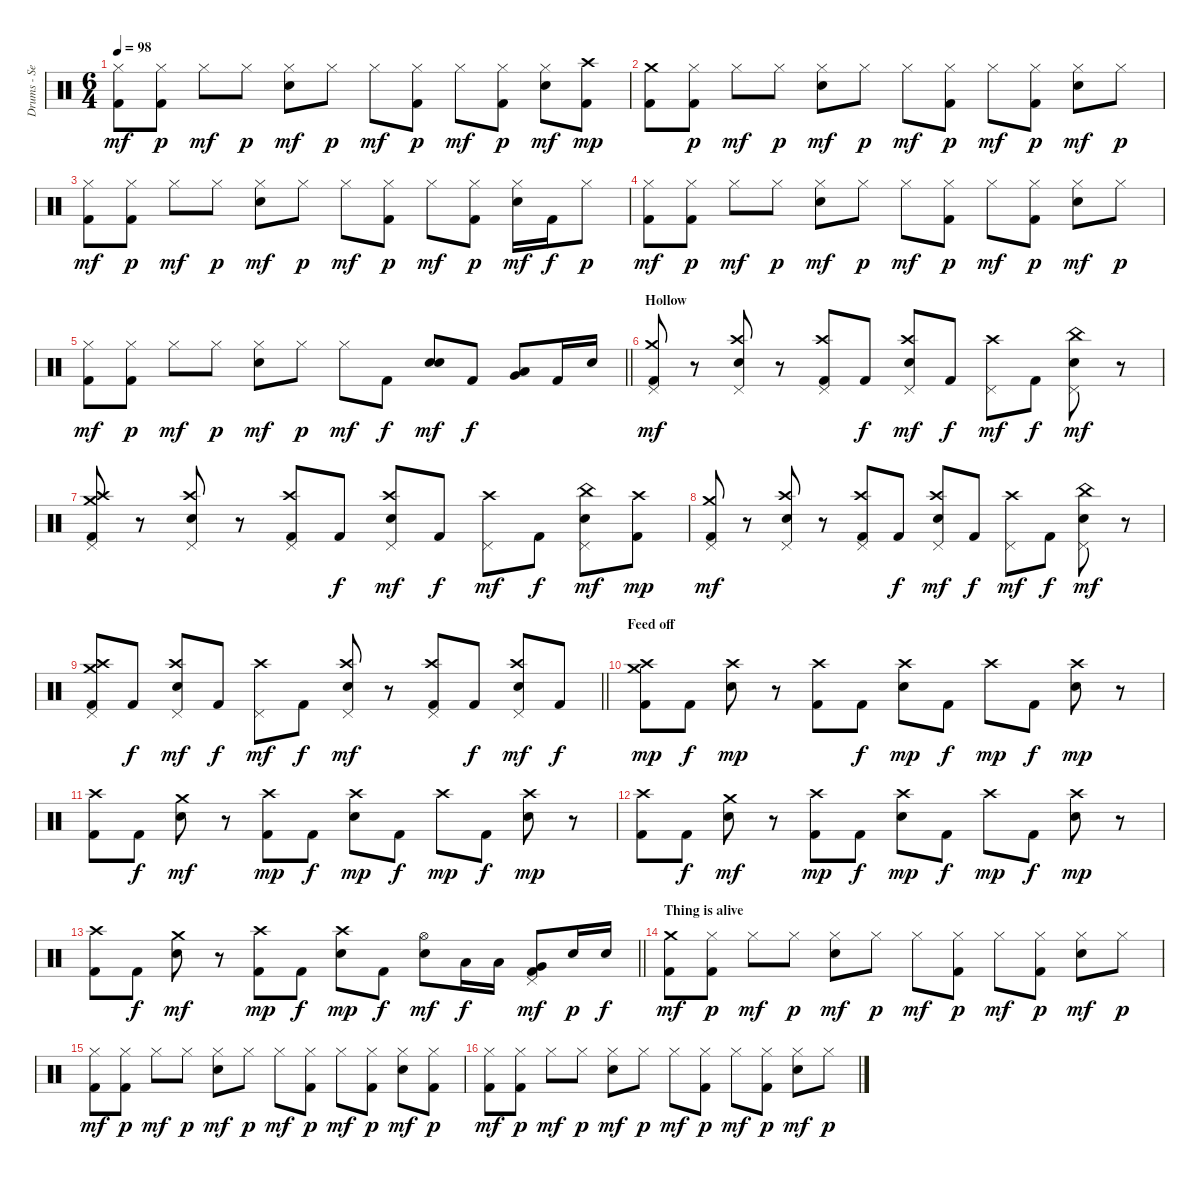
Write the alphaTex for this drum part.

\track ("Drums - Sean Kinney" "Drums - Se") {instrument percussion}
\staff {score}
\articulation defaults
\ts (6 4)
\tempo 98
\clef neutral
\ks c
("Hi-Hat (closed)" "Kick (hit) 2").8{dy mf} ("Hi-Hat (closed)" "Kick (hit) 2").8{dy p} "Hi-Hat (closed)".8{dy mf} "Hi-Hat (closed)".8{dy p} ("Hi-Hat (closed)" "Snare (hit) 2").8{dy mf} "Hi-Hat (closed)".8{dy p} "Hi-Hat (closed)".8{dy mf} ("Hi-Hat (closed)" "Kick (hit) 2").8{dy p} "Hi-Hat (closed)".8{dy mf} ("Hi-Hat (closed)" "Kick (hit) 2").8{dy p} ("Hi-Hat (closed)" "Snare (hit) 2").8{dy mf} ("Crash high (hit)" "Kick (hit) 2").8{dy mp} |
("Crash medium (hit)" "Kick (hit) 2").8 ("Hi-Hat (closed)" "Kick (hit) 2").8{dy p} "Hi-Hat (closed)".8{dy mf} "Hi-Hat (closed)".8{dy p} ("Hi-Hat (closed)" "Snare (hit) 2").8{dy mf} "Hi-Hat (closed)".8{dy p} "Hi-Hat (closed)".8{dy mf} ("Hi-Hat (closed)" "Kick (hit) 2").8{dy p} "Hi-Hat (closed)".8{dy mf} ("Hi-Hat (closed)" "Kick (hit) 2").8{dy p} ("Hi-Hat (closed)" "Snare (hit) 2").8{dy mf} "Hi-Hat (closed)".8{dy p} |
("Hi-Hat (closed)" "Kick (hit) 2").8{dy mf} ("Hi-Hat (closed)" "Kick (hit) 2").8{dy p} "Hi-Hat (closed)".8{dy mf} "Hi-Hat (closed)".8{dy p} ("Hi-Hat (closed)" "Snare (hit) 2").8{dy mf} "Hi-Hat (closed)".8{dy p} "Hi-Hat (closed)".8{dy mf} ("Hi-Hat (closed)" "Kick (hit) 2").8{dy p} "Hi-Hat (closed)".8{dy mf} ("Hi-Hat (closed)" "Kick (hit) 2").8{dy p} ("Hi-Hat (closed)" "Snare (hit) 2").16{dy mf} "Kick (hit) 2".16{dy f} "Hi-Hat (closed)".8{dy p} |
("Hi-Hat (closed)" "Kick (hit) 2").8{dy mf} ("Hi-Hat (closed)" "Kick (hit) 2").8{dy p} "Hi-Hat (closed)".8{dy mf} "Hi-Hat (closed)".8{dy p} ("Hi-Hat (closed)" "Snare (hit) 2").8{dy mf} "Hi-Hat (closed)".8{dy p} "Hi-Hat (closed)".8{dy mf} ("Hi-Hat (closed)" "Kick (hit) 2").8{dy p} "Hi-Hat (closed)".8{dy mf} ("Hi-Hat (closed)" "Kick (hit) 2").8{dy p} ("Hi-Hat (closed)" "Snare (hit) 2").8{dy mf} "Hi-Hat (closed)".8{dy p} |
\barLineRight lightlight
("Hi-Hat (closed)" "Kick (hit) 2").8{dy mf} ("Hi-Hat (closed)" "Kick (hit) 2").8{dy p} "Hi-Hat (closed)".8{dy mf} "Hi-Hat (closed)".8{dy p} ("Hi-Hat (closed)" "Snare (hit) 2").8{dy mf} "Hi-Hat (closed)".8{dy p} "Hi-Hat (closed)".8{dy mf} "Kick (hit) 2".8{dy f} ("Electric Snare (hit)" "Snare (hit) 2").8{dy mf} "Kick (hit) 2".8{dy f} ("Low Tom (hit)" "Very Low Tom (hit)").8 "Kick (hit) 2".16 "Snare (hit) 2".16 |
\section ("" "Hollow")
("Crash medium (hit)" "Pedal Hi-Hat (hit)" "Kick (hit) 2").8{dy mf} r.8 ("Crash high (hit)" "Pedal Hi-Hat (hit)" "Snare (hit) 2").8 r.8 ("Crash high (hit)" "Pedal Hi-Hat (hit)" "Kick (hit) 2").8 "Kick (hit) 2".8{dy f} ("Crash high (hit)" "Pedal Hi-Hat (hit)" "Snare (hit) 2").8{dy mf} "Kick (hit) 2".8{dy f} ("Crash high (hit)" "Pedal Hi-Hat (hit)").8{dy mf} "Kick (hit) 2".8{dy f} ("China (hit)" "Pedal Hi-Hat (hit)" "Snare (hit) 2").8{dy mf} r.8 |
("Crash medium (hit)" "Crash high (hit)" "Pedal Hi-Hat (hit)" "Kick (hit) 2").8 r.8 ("Crash high (hit)" "Pedal Hi-Hat (hit)" "Snare (hit) 2").8 r.8 ("Crash high (hit)" "Pedal Hi-Hat (hit)" "Kick (hit) 2").8 "Kick (hit) 2".8{dy f} ("Crash high (hit)" "Pedal Hi-Hat (hit)" "Snare (hit) 2").8{dy mf} "Kick (hit) 2".8{dy f} ("Crash high (hit)" "Pedal Hi-Hat (hit)").8{dy mf} "Kick (hit) 2".8{dy f} ("China (hit)" "Pedal Hi-Hat (hit)" "Snare (hit) 2").8{dy mf} ("Crash high (hit)" "Kick (hit) 2").8{dy mp} |
("Crash medium (hit)" "Pedal Hi-Hat (hit)" "Kick (hit) 2").8{dy mf} r.8 ("Crash high (hit)" "Pedal Hi-Hat (hit)" "Snare (hit) 2").8 r.8 ("Crash high (hit)" "Pedal Hi-Hat (hit)" "Kick (hit) 2").8 "Kick (hit) 2".8{dy f} ("Crash high (hit)" "Pedal Hi-Hat (hit)" "Snare (hit) 2").8{dy mf} "Kick (hit) 2".8{dy f} ("Crash high (hit)" "Pedal Hi-Hat (hit)").8{dy mf} "Kick (hit) 2".8{dy f} ("China (hit)" "Pedal Hi-Hat (hit)" "Snare (hit) 2").8{dy mf} r.8 |
\barLineRight lightlight
("Crash medium (hit)" "Crash high (hit)" "Pedal Hi-Hat (hit)" "Kick (hit) 2").8 "Kick (hit) 2".8{dy f} ("Crash high (hit)" "Pedal Hi-Hat (hit)" "Snare (hit) 2").8{dy mf} "Kick (hit) 2".8{dy f} ("Crash high (hit)" "Pedal Hi-Hat (hit)").8{dy mf} "Kick (hit) 2".8{dy f} ("Crash high (hit)" "Pedal Hi-Hat (hit)" "Snare (hit) 2").8{dy mf} r.8 ("Crash high (hit)" "Pedal Hi-Hat (hit)" "Kick (hit) 2").8 "Kick (hit) 2".8{dy f} ("Crash high (hit)" "Pedal Hi-Hat (hit)" "Snare (hit) 2").8{dy mf} "Kick (hit) 2".8{dy f} |
\section ("" "Feed off")
("Crash medium (hit)" "Crash high (hit)" "Kick (hit) 2").8{dy mp} "Kick (hit) 2".8{dy f} ("Crash high (hit)" "Snare (hit) 2").8{dy mp} r.8 ("Crash high (hit)" "Kick (hit) 2").8 "Kick (hit) 2".8{dy f} ("Crash high (hit)" "Snare (hit) 2").8{dy mp} "Kick (hit) 2".8{dy f} "Crash high (hit)".8{dy mp} "Kick (hit) 2".8{dy f} ("Crash high (hit)" "Snare (hit) 2").8{dy mp} r.8 |
("Crash high (hit)" "Kick (hit) 2").8 "Kick (hit) 2".8{dy f} ("Crash medium (hit)" "Snare (hit) 2").8{dy mf} r.8 ("Crash high (hit)" "Kick (hit) 2").8{dy mp} "Kick (hit) 2".8{dy f} ("Crash high (hit)" "Snare (hit) 2").8{dy mp} "Kick (hit) 2".8{dy f} "Crash high (hit)".8{dy mp} "Kick (hit) 2".8{dy f} ("Crash high (hit)" "Snare (hit) 2").8{dy mp} r.8 |
("Crash high (hit)" "Kick (hit) 2").8 "Kick (hit) 2".8{dy f} ("Crash medium (hit)" "Snare (hit) 2").8{dy mf} r.8 ("Crash high (hit)" "Kick (hit) 2").8{dy mp} "Kick (hit) 2".8{dy f} ("Crash high (hit)" "Snare (hit) 2").8{dy mp} "Kick (hit) 2".8{dy f} "Crash high (hit)".8{dy mp} "Kick (hit) 2".8{dy f} ("Crash high (hit)" "Snare (hit) 2").8{dy mp} r.8 |
\barLineRight lightlight
("Crash high (hit)" "Kick (hit) 2").8 "Kick (hit) 2".8{dy f} ("Crash medium (hit)" "Snare (hit) 2").8{dy mf} r.8 ("Crash high (hit)" "Kick (hit) 2").8{dy mp} "Kick (hit) 2".8{dy f} ("Crash high (hit)" "Snare (hit) 2").8{dy mp} "Kick (hit) 2".8{dy f} ("Hi-Hat (open)" "Snare (hit) 2").8{dy mf} "Low Tom (hit)".16{dy f} "Low Tom (hit)".16 ("Pedal Hi-Hat (hit)" "Very Low Tom (hit)" "Kick (hit) 2").8{dy mf} "Snare (hit) 2".16{dy p} "Snare (hit) 2".16{dy f} |
\section ("" "Thing is alive")
("Crash medium (hit)" "Kick (hit) 2").8{dy mf} ("Hi-Hat (closed)" "Kick (hit) 2").8{dy p} "Hi-Hat (closed)".8{dy mf} "Hi-Hat (closed)".8{dy p} ("Hi-Hat (closed)" "Snare (hit) 2").8{dy mf} "Hi-Hat (closed)".8{dy p} "Hi-Hat (closed)".8{dy mf} ("Hi-Hat (closed)" "Kick (hit) 2").8{dy p} "Hi-Hat (closed)".8{dy mf} ("Hi-Hat (closed)" "Kick (hit) 2").8{dy p} ("Hi-Hat (closed)" "Snare (hit) 2").8{dy mf} "Hi-Hat (closed)".8{dy p} |
("Hi-Hat (closed)" "Kick (hit) 2").8{dy mf} ("Hi-Hat (closed)" "Kick (hit) 2").8{dy p} "Hi-Hat (closed)".8{dy mf} "Hi-Hat (closed)".8{dy p} ("Hi-Hat (closed)" "Snare (hit) 2").8{dy mf} "Hi-Hat (closed)".8{dy p} "Hi-Hat (closed)".8{dy mf} ("Hi-Hat (closed)" "Kick (hit) 2").8{dy p} "Hi-Hat (closed)".8{dy mf} ("Hi-Hat (closed)" "Kick (hit) 2").8{dy p} ("Hi-Hat (closed)" "Snare (hit) 2").8{dy mf} ("Hi-Hat (closed)" "Kick (hit) 2").8{dy p} |
("Hi-Hat (closed)" "Kick (hit) 2").8{dy mf} ("Hi-Hat (closed)" "Kick (hit) 2").8{dy p} "Hi-Hat (closed)".8{dy mf} "Hi-Hat (closed)".8{dy p} ("Hi-Hat (closed)" "Snare (hit) 2").8{dy mf} "Hi-Hat (closed)".8{dy p} "Hi-Hat (closed)".8{dy mf} ("Hi-Hat (closed)" "Kick (hit) 2").8{dy p} "Hi-Hat (closed)".8{dy mf} ("Hi-Hat (closed)" "Kick (hit) 2").8{dy p} ("Hi-Hat (closed)" "Snare (hit) 2").8{dy mf} "Hi-Hat (closed)".8{dy p}
